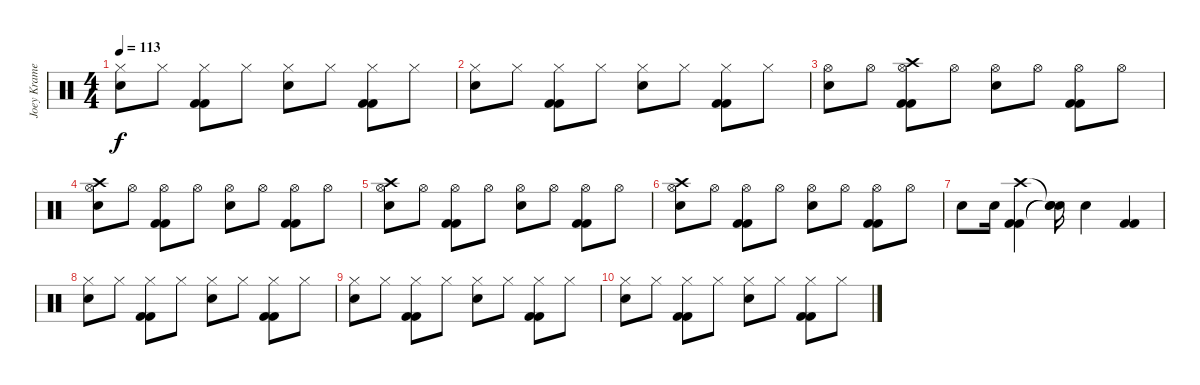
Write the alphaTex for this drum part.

\track ("Joey Kramer" "Joey Krame") {instrument percussion}
\staff {score}
\articulation defaults
\ts (4 4)
\tempo 113
\clef neutral
\ks c
("Electric Snare (hit)" "Hi-Hat (closed)").8{dy f} "Hi-Hat (closed)".8 ("Kick (hit) 2" "Kick (hit) 2" "Hi-Hat (closed)").8 "Hi-Hat (closed)".8 ("Electric Snare (hit)" "Hi-Hat (closed)").8 "Hi-Hat (closed)".8 ("Kick (hit) 2" "Kick (hit) 2" "Hi-Hat (closed)").8 "Hi-Hat (closed)".8 |
("Electric Snare (hit)" "Hi-Hat (closed)").8 "Hi-Hat (closed)".8 ("Kick (hit) 2" "Kick (hit) 2" "Hi-Hat (closed)").8 "Hi-Hat (closed)".8 ("Electric Snare (hit)" "Hi-Hat (closed)").8 "Hi-Hat (closed)".8 ("Kick (hit) 2" "Kick (hit) 2" "Hi-Hat (closed)").8 "Hi-Hat (closed)".8 |
("Electric Snare (hit)" "Hi-Hat (open)").8 "Hi-Hat (open)".8 ("Kick (hit) 2" "Kick (hit) 2" "Crash high (hit)" "Hi-Hat (open)").8 "Hi-Hat (open)".8 ("Electric Snare (hit)" "Hi-Hat (open)").8 "Hi-Hat (open)".8 ("Kick (hit) 2" "Kick (hit) 2" "Hi-Hat (open)").8 "Hi-Hat (open)".8 |
("Electric Snare (hit)" "Crash high (hit)" "Hi-Hat (open)").8 "Hi-Hat (open)".8 ("Kick (hit) 2" "Kick (hit) 2" "Hi-Hat (open)").8 "Hi-Hat (open)".8 ("Electric Snare (hit)" "Hi-Hat (open)").8 "Hi-Hat (open)".8 ("Kick (hit) 2" "Kick (hit) 2" "Hi-Hat (open)").8 "Hi-Hat (open)".8 |
("Electric Snare (hit)" "Crash high (hit)" "Hi-Hat (open)").8 "Hi-Hat (open)".8 ("Kick (hit) 2" "Kick (hit) 2" "Hi-Hat (open)").8 "Hi-Hat (open)".8 ("Electric Snare (hit)" "Hi-Hat (open)").8 "Hi-Hat (open)".8 ("Kick (hit) 2" "Kick (hit) 2" "Hi-Hat (open)").8 "Hi-Hat (open)".8 |
("Electric Snare (hit)" "Crash high (hit)" "Hi-Hat (open)").8 "Hi-Hat (open)".8 ("Kick (hit) 2" "Kick (hit) 2" "Hi-Hat (open)").8 "Hi-Hat (open)".8 ("Electric Snare (hit)" "Hi-Hat (open)").8 "Hi-Hat (open)".8 ("Kick (hit) 2" "Kick (hit) 2" "Hi-Hat (open)").8 "Hi-Hat (open)".8 |
"Electric Snare (hit)".8 "Electric Snare (hit)".16 ("Kick (hit) 2" "Crash high (hit)" "Kick (hit) 2").4 ("Snare (hit)"{t} "Snare (hit)"{t} "Snare (hit)"{t}).16 "Electric Snare (hit)".4 ("Kick (hit) 2" "Kick (hit) 2").4 |
("Electric Snare (hit)" "Hi-Hat (closed)").8 "Hi-Hat (closed)".8 ("Kick (hit) 2" "Kick (hit) 2" "Hi-Hat (closed)").8 "Hi-Hat (closed)".8 ("Electric Snare (hit)" "Hi-Hat (closed)").8 "Hi-Hat (closed)".8 ("Kick (hit) 2" "Kick (hit) 2" "Hi-Hat (closed)").8 "Hi-Hat (closed)".8 |
("Electric Snare (hit)" "Hi-Hat (closed)").8{volume 0} "Hi-Hat (closed)".8 ("Kick (hit) 2" "Kick (hit) 2" "Hi-Hat (closed)").8 "Hi-Hat (closed)".8 ("Electric Snare (hit)" "Hi-Hat (closed)").8 "Hi-Hat (closed)".8 ("Kick (hit) 2" "Kick (hit) 2" "Hi-Hat (closed)").8 "Hi-Hat (closed)".8 |
("Electric Snare (hit)" "Hi-Hat (closed)").8 "Hi-Hat (closed)".8 ("Kick (hit) 2" "Kick (hit) 2" "Hi-Hat (closed)").8 "Hi-Hat (closed)".8 ("Electric Snare (hit)" "Hi-Hat (closed)").8 "Hi-Hat (closed)".8 ("Kick (hit) 2" "Kick (hit) 2" "Hi-Hat (closed)").8 "Hi-Hat (closed)".8
